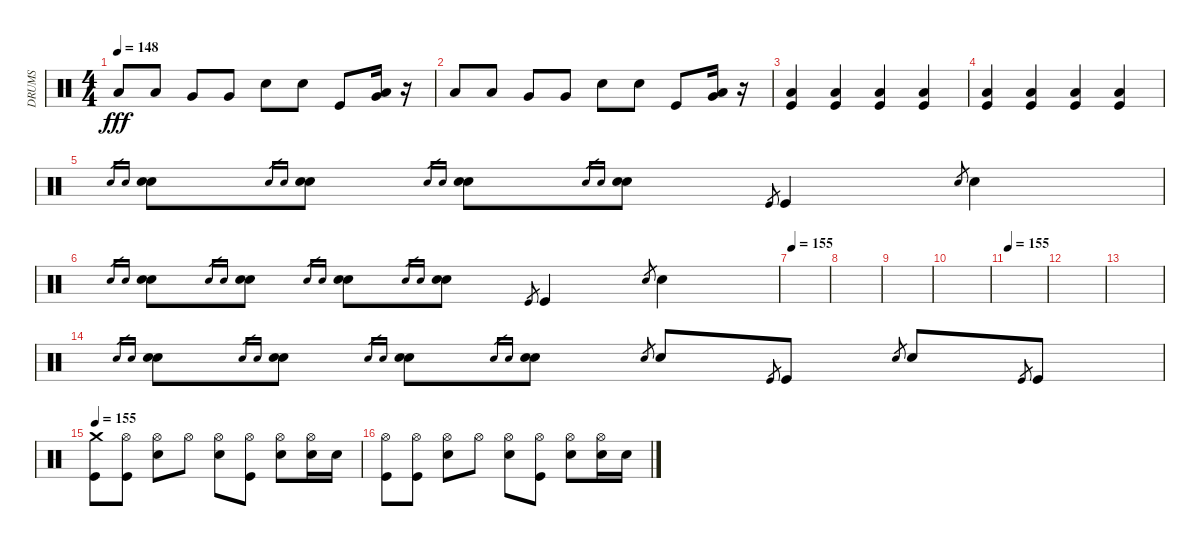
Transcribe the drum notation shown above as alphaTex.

\track ("DRUMS" "DRUMS") {instrument percussion}
\staff {score}
\articulation defaults
\ts (4 4)
\tempo 148
\clef neutral
\ks c "Low Tom (hit)".8{dy fff} "Low Tom (hit)".8 "Very Low Tom (hit)".8 "Very Low Tom (hit)".8 "Snare (hit) 2".8 "Snare (hit) 2".8 "Kick (hit)".8
("Very Low Tom (hit)" "Low Tom (hit)").16 r.16 |
"Low Tom (hit)".8 "Low Tom (hit)".8 "Very Low Tom (hit)".8 "Very Low Tom (hit)".8 "Snare (hit) 2".8 "Snare (hit) 2".8 "Kick (hit)".8 ("Very Low Tom (hit)" "Low Tom (hit)").16 r.16 |
("Low Tom (hit)" "Kick (hit)").4 ("Low Tom (hit)" "Kick (hit)").4 ("Low Tom (hit)" "Kick (hit)").4 ("Low Tom (hit)" "Kick (hit)").4 |
("Low Tom (hit)" "Kick (hit)").4 ("Low Tom (hit)" "Kick (hit)").4 ("Low Tom (hit)" "Kick (hit)").4 ("Low Tom (hit)" "Kick (hit)").4 |
"Snare (hit) 2".16{gr} "Snare (hit) 2".16{gr} ("Snare (hit) 2" "Snare (hit) 2").8 "Snare (hit) 2".16{gr} "Snare (hit) 2".16{gr} ("Snare (hit) 2" "Snare (hit) 2").8 "Snare (hit) 2".16{gr} "Snare (hit) 2".16{gr} ("Snare (hit) 2" "Snare (hit) 2").8 "Snare (hit) 2".16{gr} "Snare (hit) 2".16{gr} ("Snare (hit) 2" "Snare (hit) 2").8 "Kick (hit)".8{gr} "Kick (hit)".4 "Snare (hit) 2".8{gr} "Snare (hit) 2".4 |
"Snare (hit) 2".16{gr} "Snare (hit) 2".16{gr} ("Snare (hit) 2" "Snare (hit) 2").8 "Snare (hit) 2".16{gr} "Snare (hit) 2".16{gr} ("Snare (hit) 2" "Snare (hit) 2").8 "Snare (hit) 2".16{gr} "Snare (hit) 2".16{gr} ("Snare (hit) 2" "Snare (hit) 2").8 "Snare (hit) 2".16{gr} "Snare (hit) 2".16{gr} ("Snare (hit) 2" "Snare (hit) 2").8 "Kick (hit)".8{gr} "Kick (hit)".4 "Snare (hit) 2".8{gr} "Snare (hit) 2".4 |
\tempo 155
|
|
|
|
\tempo 155
|
|
|
"Snare (hit) 2".16{gr} "Snare (hit) 2".16{gr} ("Snare (hit) 2" "Snare (hit) 2").8 "Snare (hit) 2".16{gr} "Snare (hit) 2".16{gr} ("Snare (hit) 2" "Snare (hit) 2").8 "Snare (hit) 2".16{gr} "Snare (hit) 2".16{gr} ("Snare (hit) 2" "Snare (hit) 2").8 "Snare (hit) 2".16{gr} "Snare (hit) 2".16{gr} ("Snare (hit) 2" "Snare (hit) 2").8 "Snare (hit) 2".8{gr} "Snare (hit) 2".8 "Kick (hit)".8{gr} "Kick (hit)".8 "Snare (hit) 2".8{gr} "Snare (hit) 2".8 "Kick (hit)".8{gr} "Kick (hit)".8 |
\tempo 155
("Kick (hit)" "Crash medium (hit)").8 ("Kick (hit)" "Hi-Hat (open)").8 ("Snare (hit) 2" "Hi-Hat (open)").8 "Hi-Hat (open)".8 ("Snare (hit) 2" "Hi-Hat (open)").8 ("Kick (hit)" "Hi-Hat (open)").8 ("Snare (hit) 2" "Hi-Hat (open)").8 ("Snare (hit) 2" "Hi-Hat (open)").16 "Snare (hit) 2".16 |
("Kick (hit)" "Hi-Hat (open)").8 ("Kick (hit)" "Hi-Hat (open)").8 ("Snare (hit) 2" "Hi-Hat (open)").8 "Hi-Hat (open)".8 ("Snare (hit) 2" "Hi-Hat (open)").8 ("Kick (hit)" "Hi-Hat (open)").8 ("Snare (hit) 2" "Hi-Hat (open)").8 ("Snare (hit) 2" "Hi-Hat (open)").16 "Snare (hit) 2".16
